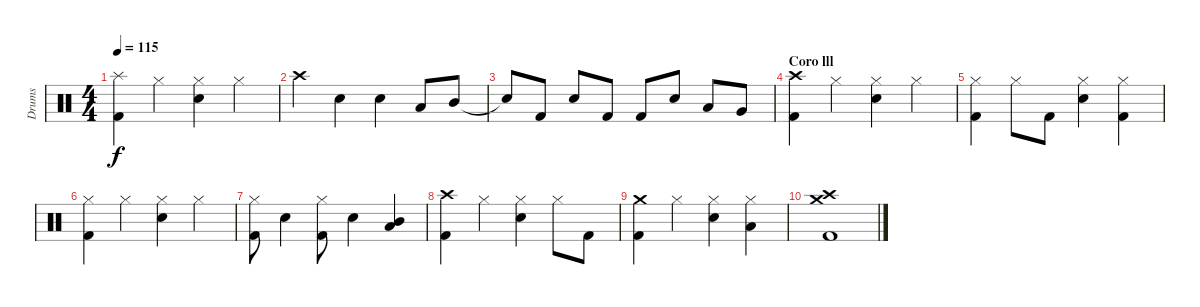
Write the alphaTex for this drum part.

\track ("Drums" "Drums") {instrument percussion}
\staff {score}
\articulation defaults
\ts (4 4)
\tempo 115
\clef neutral
\ks c
("Splash (hit)" "Kick (hit) 2").4{dy f} "Hi-Hat (closed)".4 ("Hi-Hat (closed)" "Snare (hit) 2").4 "Hi-Hat (closed)".4 |
"Crash high (hit)".4 "Snare (hit) 2".4 "Snare (hit) 2".4 "Low Tom (hit)".8 "Mid Tom (hit)".8 |
"Snare (hit)"{t}.8 "Kick (hit) 2".8 "Snare (hit) 2".8 "Kick (hit) 2".8 "Kick (hit) 2".8 "Snare (hit) 2".8 "Low Tom (hit)".8 "Very Low Tom (hit)".8 |
\section ("" "Coro lll")
("Crash high (hit)" "Kick (hit) 2").4 "Hi-Hat (closed)".4 ("Hi-Hat (closed)" "Snare (hit) 2").4 "Hi-Hat (closed)".4 |
("Hi-Hat (closed)" "Kick (hit) 2").4 "Hi-Hat (closed)".8 "Kick (hit) 2".8 ("Hi-Hat (closed)" "Snare (hit) 2").4 ("Hi-Hat (closed)" "Kick (hit) 2").4 |
("Hi-Hat (closed)" "Kick (hit) 2").4 "Hi-Hat (closed)".4 ("Hi-Hat (closed)" "Snare (hit) 2").4 "Hi-Hat (closed)".4 |
("Hi-Hat (closed)" "Kick (hit) 2").8 "Snare (hit) 2".4 ("Hi-Hat (closed)" "Kick (hit) 2").8 "Snare (hit) 2".4 ("Mid Tom (hit)" "Low Tom (hit)").4 |
("Crash high (hit)" "Kick (hit) 2").4 "Hi-Hat (closed)".4 ("Hi-Hat (closed)" "Snare (hit) 2").4 "Hi-Hat (closed)".8 "Kick (hit) 2".8 |
("Crash medium (hit)" "Kick (hit) 2").4 "Hi-Hat (closed)".4 ("Hi-Hat (closed)" "Snare (hit) 2").4 ("Hi-Hat (closed)" "Low Tom (hit)").4 |
("Crash high (hit)" "Crash medium (hit)" "Kick (hit) 2").1
